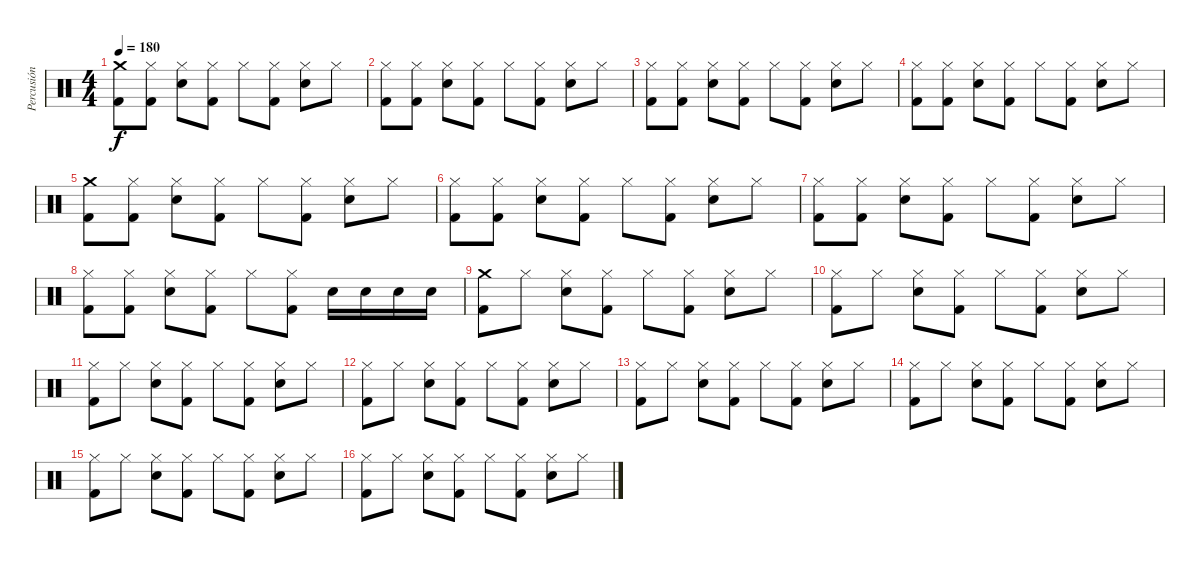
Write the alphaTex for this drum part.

\track ("Percusión" "Percusión") {instrument percussion}
\staff {score}
\articulation defaults
\ts (4 4)
\tempo 180
\clef neutral
\ks c
("Crash medium (hit)" "Kick (hit) 2").8{dy f} ("Hi-Hat (closed)" "Kick (hit) 2").8 ("Hi-Hat (closed)" "Electric Snare (hit)").8 ("Hi-Hat (closed)" "Kick (hit) 2").8 "Hi-Hat (closed)".8 ("Hi-Hat (closed)" "Kick (hit) 2").8 ("Hi-Hat (closed)" "Electric Snare (hit)").8 "Hi-Hat (closed)".8 |
("Hi-Hat (closed)" "Kick (hit) 2").8 ("Hi-Hat (closed)" "Kick (hit) 2").8 ("Hi-Hat (closed)" "Electric Snare (hit)").8 ("Hi-Hat (closed)" "Kick (hit) 2").8 "Hi-Hat (closed)".8 ("Hi-Hat (closed)" "Kick (hit) 2").8 ("Hi-Hat (closed)" "Electric Snare (hit)").8 "Hi-Hat (closed)".8 |
("Hi-Hat (closed)" "Kick (hit) 2").8 ("Hi-Hat (closed)" "Kick (hit) 2").8 ("Hi-Hat (closed)" "Electric Snare (hit)").8 ("Hi-Hat (closed)" "Kick (hit) 2").8 "Hi-Hat (closed)".8 ("Hi-Hat (closed)" "Kick (hit) 2").8 ("Hi-Hat (closed)" "Electric Snare (hit)").8 "Hi-Hat (closed)".8 |
("Hi-Hat (closed)" "Kick (hit) 2").8 ("Hi-Hat (closed)" "Kick (hit) 2").8 ("Hi-Hat (closed)" "Electric Snare (hit)").8 ("Hi-Hat (closed)" "Kick (hit) 2").8 "Hi-Hat (closed)".8 ("Hi-Hat (closed)" "Kick (hit) 2").8 ("Hi-Hat (closed)" "Electric Snare (hit)").8 "Hi-Hat (closed)".8 |
("Crash medium (hit)" "Kick (hit) 2").8 ("Hi-Hat (closed)" "Kick (hit) 2").8 ("Hi-Hat (closed)" "Electric Snare (hit)").8 ("Hi-Hat (closed)" "Kick (hit) 2").8 "Hi-Hat (closed)".8 ("Hi-Hat (closed)" "Kick (hit) 2").8 ("Hi-Hat (closed)" "Electric Snare (hit)").8 "Hi-Hat (closed)".8 |
("Hi-Hat (closed)" "Kick (hit) 2").8 ("Hi-Hat (closed)" "Kick (hit) 2").8 ("Hi-Hat (closed)" "Electric Snare (hit)").8 ("Hi-Hat (closed)" "Kick (hit) 2").8 "Hi-Hat (closed)".8 ("Hi-Hat (closed)" "Kick (hit) 2").8 ("Hi-Hat (closed)" "Electric Snare (hit)").8 "Hi-Hat (closed)".8 |
("Hi-Hat (closed)" "Kick (hit) 2").8 ("Hi-Hat (closed)" "Kick (hit) 2").8 ("Hi-Hat (closed)" "Electric Snare (hit)").8 ("Hi-Hat (closed)" "Kick (hit) 2").8 "Hi-Hat (closed)".8 ("Hi-Hat (closed)" "Kick (hit) 2").8 ("Hi-Hat (closed)" "Electric Snare (hit)").8 "Hi-Hat (closed)".8 |
("Hi-Hat (closed)" "Kick (hit) 2").8 ("Hi-Hat (closed)" "Kick (hit) 2").8 ("Hi-Hat (closed)" "Electric Snare (hit)").8 ("Hi-Hat (closed)" "Kick (hit) 2").8 "Hi-Hat (closed)".8 ("Hi-Hat (closed)" "Kick (hit) 2").8 "Electric Snare (hit)".16 "Electric Snare (hit)".16 "Electric Snare (hit)".16 "Electric Snare (hit)".16 |
("Crash medium (hit)" "Kick (hit) 2").8 "Hi-Hat (closed)".8 ("Hi-Hat (closed)" "Electric Snare (hit)").8 ("Hi-Hat (closed)" "Kick (hit) 2").8 "Hi-Hat (closed)".8 ("Hi-Hat (closed)" "Kick (hit) 2").8 ("Hi-Hat (closed)" "Electric Snare (hit)").8 "Hi-Hat (closed)".8 |
("Hi-Hat (closed)" "Kick (hit) 2").8 "Hi-Hat (closed)".8 ("Hi-Hat (closed)" "Electric Snare (hit)").8 ("Hi-Hat (closed)" "Kick (hit) 2").8 "Hi-Hat (closed)".8 ("Hi-Hat (closed)" "Kick (hit) 2").8 ("Hi-Hat (closed)" "Electric Snare (hit)").8 "Hi-Hat (closed)".8 |
("Hi-Hat (closed)" "Kick (hit) 2").8 "Hi-Hat (closed)".8 ("Hi-Hat (closed)" "Electric Snare (hit)").8 ("Hi-Hat (closed)" "Kick (hit) 2").8 "Hi-Hat (closed)".8 ("Hi-Hat (closed)" "Kick (hit) 2").8 ("Hi-Hat (closed)" "Electric Snare (hit)").8 "Hi-Hat (closed)".8 |
("Hi-Hat (closed)" "Kick (hit) 2").8 "Hi-Hat (closed)".8 ("Hi-Hat (closed)" "Electric Snare (hit)").8 ("Hi-Hat (closed)" "Kick (hit) 2").8 "Hi-Hat (closed)".8 ("Hi-Hat (closed)" "Kick (hit) 2").8 ("Hi-Hat (closed)" "Electric Snare (hit)").8 "Hi-Hat (closed)".8 |
("Hi-Hat (closed)" "Kick (hit) 2").8 "Hi-Hat (closed)".8 ("Hi-Hat (closed)" "Electric Snare (hit)").8 ("Hi-Hat (closed)" "Kick (hit) 2").8 "Hi-Hat (closed)".8 ("Hi-Hat (closed)" "Kick (hit) 2").8 ("Hi-Hat (closed)" "Electric Snare (hit)").8 "Hi-Hat (closed)".8 |
("Hi-Hat (closed)" "Kick (hit) 2").8 "Hi-Hat (closed)".8 ("Hi-Hat (closed)" "Electric Snare (hit)").8 ("Hi-Hat (closed)" "Kick (hit) 2").8 "Hi-Hat (closed)".8 ("Hi-Hat (closed)" "Kick (hit) 2").8 ("Hi-Hat (closed)" "Electric Snare (hit)").8 "Hi-Hat (closed)".8 |
("Hi-Hat (closed)" "Kick (hit) 2").8 "Hi-Hat (closed)".8 ("Hi-Hat (closed)" "Electric Snare (hit)").8 ("Hi-Hat (closed)" "Kick (hit) 2").8 "Hi-Hat (closed)".8 ("Hi-Hat (closed)" "Kick (hit) 2").8 ("Hi-Hat (closed)" "Electric Snare (hit)").8 "Hi-Hat (closed)".8 |
("Hi-Hat (closed)" "Kick (hit) 2").8 "Hi-Hat (closed)".8 ("Hi-Hat (closed)" "Electric Snare (hit)").8 ("Hi-Hat (closed)" "Kick (hit) 2").8 "Hi-Hat (closed)".8 ("Hi-Hat (closed)" "Kick (hit) 2").8 ("Hi-Hat (closed)" "Electric Snare (hit)").8 "Hi-Hat (closed)".8
